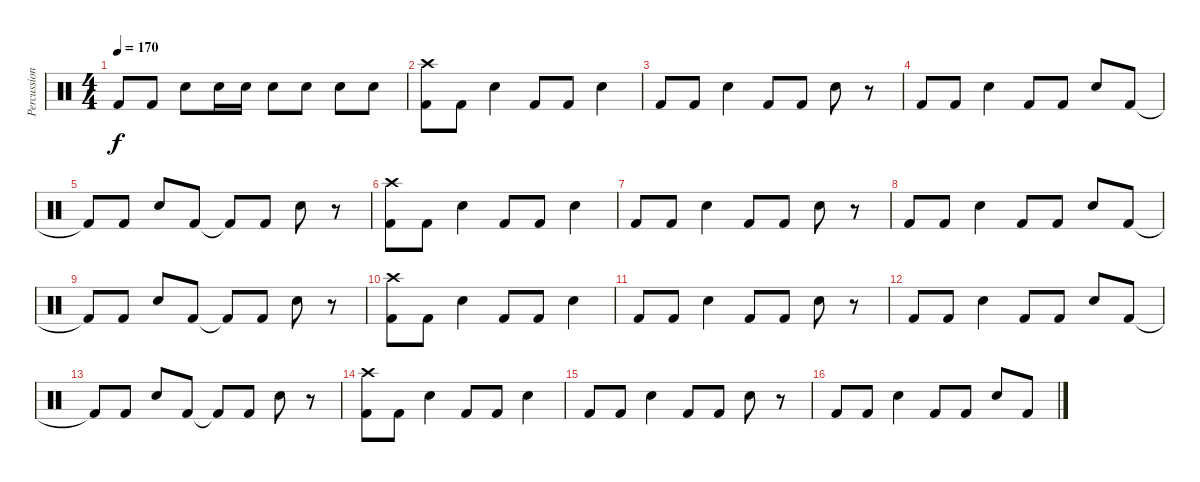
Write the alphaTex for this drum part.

\track ("Percussion" "Percussion") {instrument percussion}
\staff {score}
\articulation defaults
\ts (4 4)
\tempo 170
\clef neutral
\ks c "Kick (hit) 2".8{dy f} "Kick (hit) 2".8 "Electric Snare (hit)".8 "Electric Snare (hit)".16 "Electric Snare (hit)".16 "Electric Snare (hit)".8 "Electric Snare (hit)".8 "Electric Snare (hit)".8 "Electric Snare (hit)".8
|
("Crash high (hit)" "Kick (hit) 2").8 "Kick (hit) 2".8 "Electric Snare (hit)".4 "Kick (hit) 2".8 "Kick (hit) 2".8 "Electric Snare (hit)".4 |
"Kick (hit) 2".8 "Kick (hit) 2".8 "Electric Snare (hit)".4 "Kick (hit) 2".8 "Kick (hit) 2".8 "Electric Snare (hit)".8 r.8 |
"Kick (hit) 2".8 "Kick (hit) 2".8 "Electric Snare (hit)".4 "Kick (hit) 2".8 "Kick (hit) 2".8 "Electric Snare (hit)".8 "Kick (hit) 2".8 |
"Kick (hit) 2"{t}.8 "Kick (hit) 2".8 "Electric Snare (hit)".8 "Kick (hit) 2".8 "Kick (hit) 2"{t}.8 "Kick (hit) 2".8 "Electric Snare (hit)".8 r.8 |
("Crash high (hit)" "Kick (hit) 2").8 "Kick (hit) 2".8 "Electric Snare (hit)".4 "Kick (hit) 2".8 "Kick (hit) 2".8 "Electric Snare (hit)".4 |
"Kick (hit) 2".8 "Kick (hit) 2".8 "Electric Snare (hit)".4 "Kick (hit) 2".8 "Kick (hit) 2".8 "Electric Snare (hit)".8 r.8 |
"Kick (hit) 2".8 "Kick (hit) 2".8 "Electric Snare (hit)".4 "Kick (hit) 2".8 "Kick (hit) 2".8 "Electric Snare (hit)".8 "Kick (hit) 2".8 |
"Kick (hit) 2"{t}.8 "Kick (hit) 2".8 "Electric Snare (hit)".8 "Kick (hit) 2".8 "Kick (hit) 2"{t}.8 "Kick (hit) 2".8 "Electric Snare (hit)".8 r.8 |
("Crash high (hit)" "Kick (hit) 2").8 "Kick (hit) 2".8 "Electric Snare (hit)".4 "Kick (hit) 2".8 "Kick (hit) 2".8 "Electric Snare (hit)".4 |
"Kick (hit) 2".8 "Kick (hit) 2".8 "Electric Snare (hit)".4 "Kick (hit) 2".8 "Kick (hit) 2".8 "Electric Snare (hit)".8 r.8 |
"Kick (hit) 2".8 "Kick (hit) 2".8 "Electric Snare (hit)".4 "Kick (hit) 2".8 "Kick (hit) 2".8 "Electric Snare (hit)".8 "Kick (hit) 2".8 |
"Kick (hit) 2"{t}.8 "Kick (hit) 2".8 "Electric Snare (hit)".8 "Kick (hit) 2".8 "Kick (hit) 2"{t}.8 "Kick (hit) 2".8 "Electric Snare (hit)".8 r.8 |
("Crash high (hit)" "Kick (hit) 2").8 "Kick (hit) 2".8 "Electric Snare (hit)".4 "Kick (hit) 2".8 "Kick (hit) 2".8 "Electric Snare (hit)".4 |
"Kick (hit) 2".8 "Kick (hit) 2".8 "Electric Snare (hit)".4 "Kick (hit) 2".8 "Kick (hit) 2".8 "Electric Snare (hit)".8 r.8 |
"Kick (hit) 2".8 "Kick (hit) 2".8 "Electric Snare (hit)".4 "Kick (hit) 2".8 "Kick (hit) 2".8 "Electric Snare (hit)".8 "Kick (hit) 2".8
